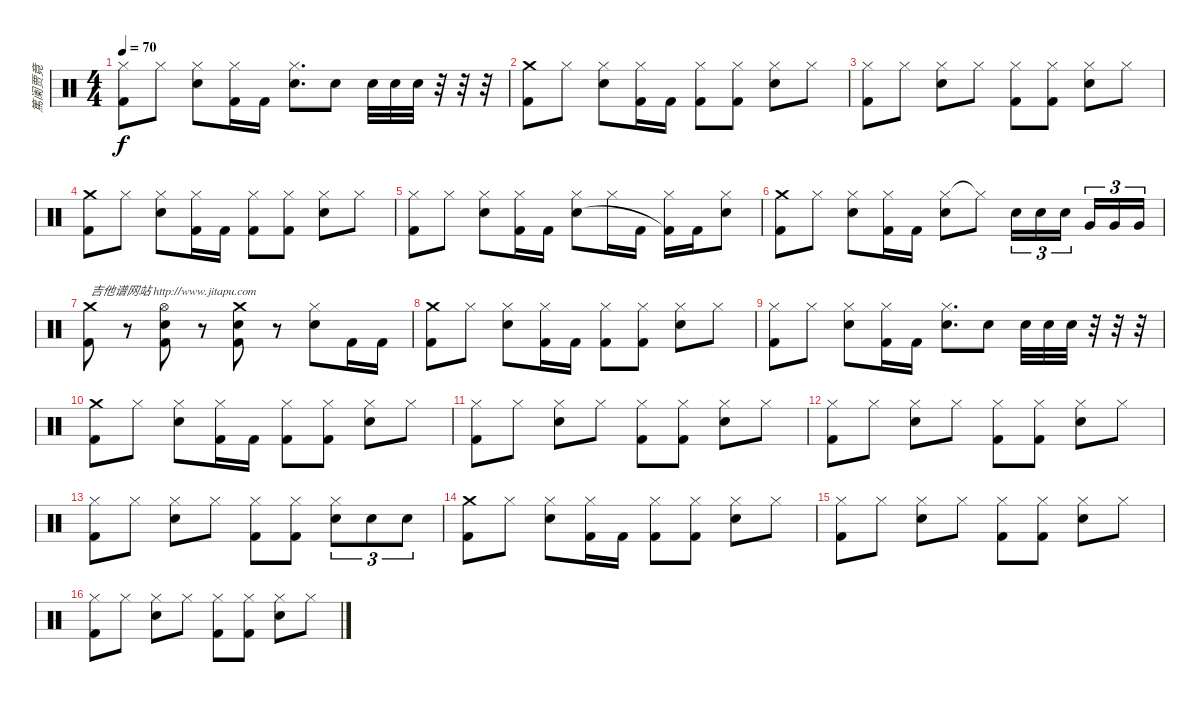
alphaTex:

\track ("篤阑贾竟" "篤阑贾竟") {instrument percussion}
\staff {score}
\articulation defaults
\ts (4 4)
\tempo 70
\clef neutral
\ks c
("Hi-Hat (closed)" "Kick (hit) 2").8{dy f} "Hi-Hat (closed)".8 ("Hi-Hat (closed)" "Snare (hit) 2").8 ("Hi-Hat (closed)" "Kick (hit) 2").16 "Kick (hit) 2".16 ("Hi-Hat (closed)" "Snare (hit) 2").8{d} "Snare (hit) 2".8 "Snare (hit) 2".32 "Snare (hit) 2".32 "Snare (hit) 2".32 r.32 r.32 r.32 |
("Crash medium (hit)" "Kick (hit) 2").8 "Hi-Hat (closed)".8 ("Hi-Hat (closed)" "Snare (hit) 2").8 ("Hi-Hat (closed)" "Kick (hit) 2").16 "Kick (hit) 2".16 ("Hi-Hat (closed)" "Kick (hit) 2").8 ("Hi-Hat (closed)" "Kick (hit) 2").8 ("Hi-Hat (closed)" "Snare (hit) 2").8 "Hi-Hat (closed)".8 |
("Hi-Hat (closed)" "Kick (hit) 2").8 "Hi-Hat (closed)".8 ("Hi-Hat (closed)" "Snare (hit) 2").8 "Hi-Hat (closed)".8 ("Hi-Hat (closed)" "Kick (hit) 2").8 ("Hi-Hat (closed)" "Kick (hit) 2").8 ("Hi-Hat (closed)" "Snare (hit) 2").8 "Hi-Hat (closed)".8 |
("Crash medium (hit)" "Kick (hit) 2").8 "Hi-Hat (closed)".8 ("Hi-Hat (closed)" "Snare (hit) 2").8 ("Hi-Hat (closed)" "Kick (hit) 2").16 "Kick (hit) 2".16 ("Hi-Hat (closed)" "Kick (hit) 2").8 ("Hi-Hat (closed)" "Kick (hit) 2").8 ("Hi-Hat (closed)" "Snare (hit) 2").8 "Hi-Hat (closed)".8 |
("Hi-Hat (closed)" "Kick (hit) 2").8 "Hi-Hat (closed)".8 ("Hi-Hat (closed)" "Snare (hit) 2").8 ("Hi-Hat (closed)" "Kick (hit) 2").16 "Kick (hit) 2".16 ("Hi-Hat (closed)" "Snare (hit) 2").8 "Hi-Hat (closed)".16 "Kick (hit) 2".16 ("Hi-Hat (closed)" "Kick (hit) 2"{t}).16 "Kick (hit) 2".16 ("Hi-Hat (closed)" "Snare (hit) 2").8 |
("Crash medium (hit)" "Kick (hit) 2").8 "Hi-Hat (closed)".8 ("Hi-Hat (closed)" "Snare (hit) 2").8 ("Hi-Hat (closed)" "Kick (hit) 2").16 "Kick (hit) 2".16 ("Hi-Hat (closed)" "Snare (hit) 2").8 "Hi-Hat (closed)"{t}.8 "Snare (hit) 2".16{tu (3 2)} "Snare (hit) 2".16{tu (3 2)} "Snare (hit) 2".16{tu (3 2) beam splitsecondary} "Very Low Tom (hit)".16{tu (3 2)} "Very Low Tom (hit)".16{tu (3 2)} "Very Low Tom (hit)".16{tu (3 2)} |
("Crash medium (hit)" "Kick (hit) 2").8{txt "吉他谱网站 http://www.jitapu.com"} r.8 ("Hi-Hat (open)" "Snare (hit) 2" "Kick (hit) 2").8 r.8 ("Crash medium (hit)" "Snare (hit) 2" "Kick (hit) 2").8 r.8 ("Hi-Hat (closed)" "Snare (hit) 2").8 "Kick (hit) 2".16 "Kick (hit) 2".16 |
("Crash medium (hit)" "Kick (hit) 2").8 "Hi-Hat (closed)".8 ("Hi-Hat (closed)" "Snare (hit) 2").8 ("Hi-Hat (closed)" "Kick (hit) 2").16 "Kick (hit) 2".16 ("Hi-Hat (closed)" "Kick (hit) 2").8 ("Hi-Hat (closed)" "Kick (hit) 2").8 ("Hi-Hat (closed)" "Snare (hit) 2").8 "Hi-Hat (closed)".8 |
("Hi-Hat (closed)" "Kick (hit) 2").8 "Hi-Hat (closed)".8 ("Hi-Hat (closed)" "Snare (hit) 2").8 ("Hi-Hat (closed)" "Kick (hit) 2").16 "Kick (hit) 2".16 ("Hi-Hat (closed)" "Snare (hit) 2").8{d} "Snare (hit) 2".8 "Snare (hit) 2".32 "Snare (hit) 2".32 "Snare (hit) 2".32 r.32 r.32 r.32 |
("Crash medium (hit)" "Kick (hit) 2").8 "Hi-Hat (closed)".8 ("Hi-Hat (closed)" "Snare (hit) 2").8 ("Hi-Hat (closed)" "Kick (hit) 2").16 "Kick (hit) 2".16 ("Hi-Hat (closed)" "Kick (hit) 2").8 ("Hi-Hat (closed)" "Kick (hit) 2").8 ("Hi-Hat (closed)" "Snare (hit) 2").8 "Hi-Hat (closed)".8 |
("Hi-Hat (closed)" "Kick (hit) 2").8 "Hi-Hat (closed)".8 ("Hi-Hat (closed)" "Snare (hit) 2").8 "Hi-Hat (closed)".8 ("Hi-Hat (closed)" "Kick (hit) 2").8 ("Hi-Hat (closed)" "Kick (hit) 2").8 ("Hi-Hat (closed)" "Snare (hit) 2").8 "Hi-Hat (closed)".8 |
("Hi-Hat (closed)" "Kick (hit) 2").8 "Hi-Hat (closed)".8 ("Hi-Hat (closed)" "Snare (hit) 2").8 "Hi-Hat (closed)".8 ("Hi-Hat (closed)" "Kick (hit) 2").8 ("Hi-Hat (closed)" "Kick (hit) 2").8 ("Hi-Hat (closed)" "Snare (hit) 2").8 "Hi-Hat (closed)".8 |
("Hi-Hat (closed)" "Kick (hit) 2").8 "Hi-Hat (closed)".8 ("Hi-Hat (closed)" "Snare (hit) 2").8 "Hi-Hat (closed)".8 ("Hi-Hat (closed)" "Kick (hit) 2").8 ("Hi-Hat (closed)" "Kick (hit) 2").8 ("Hi-Hat (closed)" "Snare (hit) 2").8{tu (3 2)} "Snare (hit) 2".8{tu (3 2)} "Snare (hit) 2".8{tu (3 2)} |
("Crash medium (hit)" "Kick (hit) 2").8 "Hi-Hat (closed)".8 ("Hi-Hat (closed)" "Snare (hit) 2").8 ("Hi-Hat (closed)" "Kick (hit) 2").16 "Kick (hit) 2".16 ("Hi-Hat (closed)" "Kick (hit) 2").8 ("Hi-Hat (closed)" "Kick (hit) 2").8 ("Hi-Hat (closed)" "Snare (hit) 2").8 "Hi-Hat (closed)".8 |
("Hi-Hat (closed)" "Kick (hit) 2").8 "Hi-Hat (closed)".8 ("Hi-Hat (closed)" "Snare (hit) 2").8 "Hi-Hat (closed)".8 ("Hi-Hat (closed)" "Kick (hit) 2").8 ("Hi-Hat (closed)" "Kick (hit) 2").8 ("Hi-Hat (closed)" "Snare (hit) 2").8 "Hi-Hat (closed)".8 |
("Hi-Hat (closed)" "Kick (hit) 2").8 "Hi-Hat (closed)".8 ("Hi-Hat (closed)" "Snare (hit) 2").8 "Hi-Hat (closed)".8 ("Hi-Hat (closed)" "Kick (hit) 2").8 ("Hi-Hat (closed)" "Kick (hit) 2").8 ("Hi-Hat (closed)" "Snare (hit) 2").8 "Hi-Hat (closed)".8
